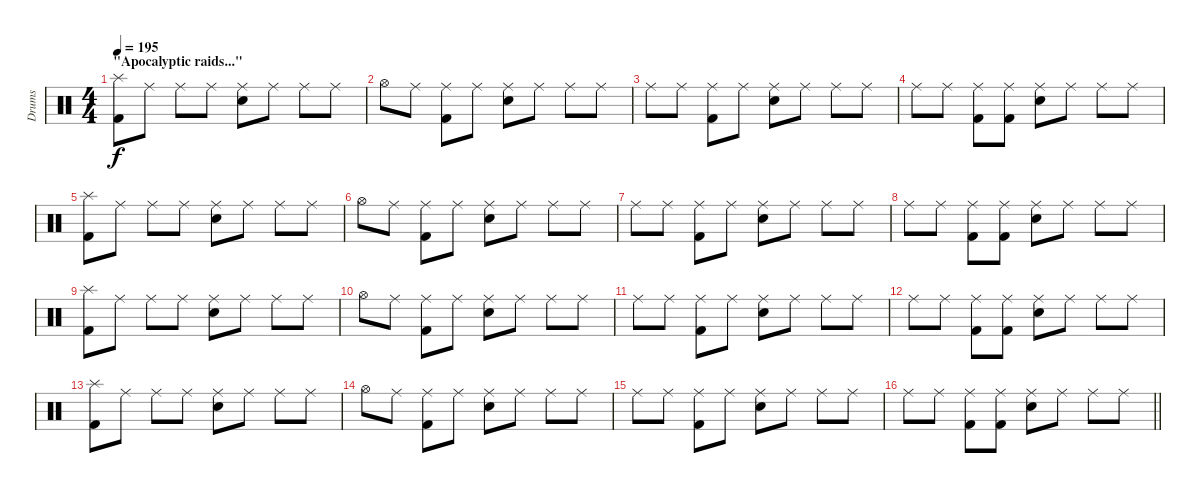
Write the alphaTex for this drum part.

\track ("Drums" "Drums") {instrument percussion}
\staff {score}
\articulation defaults
\ts (4 4)
\section ("" "\"Apocalyptic raids...\"")
\tempo 195
\clef neutral
\ks c
("Splash (hit)" "Kick (hit) 2").8{dy f} "Ride (middle)".8 "Ride (middle)".8 "Ride (middle)".8 ("Ride (middle)" "Snare (hit) 2").8 "Ride (middle)".8 "Ride (middle)".8 "Ride (middle)".8 |
"Hi-Hat (open)".8 "Ride (middle)".8 ("Ride (middle)" "Kick (hit) 2").8 "Ride (middle)".8 ("Ride (middle)" "Snare (hit) 2").8 "Ride (middle)".8 "Ride (middle)".8 "Ride (middle)".8 |
"Ride (middle)".8 "Ride (middle)".8 ("Ride (middle)" "Kick (hit) 2").8 "Ride (middle)".8 ("Ride (middle)" "Snare (hit) 2").8 "Ride (middle)".8 "Ride (middle)".8 "Ride (middle)".8 |
"Ride (middle)".8 "Ride (middle)".8 ("Ride (middle)" "Kick (hit) 2").8 ("Ride (middle)" "Kick (hit) 2").8 ("Ride (middle)" "Snare (hit) 2").8 "Ride (middle)".8 "Ride (middle)".8 "Ride (middle)".8 |
("Splash (hit)" "Kick (hit) 2").8 "Ride (middle)".8 "Ride (middle)".8 "Ride (middle)".8 ("Ride (middle)" "Snare (hit) 2").8 "Ride (middle)".8 "Ride (middle)".8 "Ride (middle)".8 |
"Hi-Hat (open)".8 "Ride (middle)".8 ("Ride (middle)" "Kick (hit) 2").8 "Ride (middle)".8 ("Ride (middle)" "Snare (hit) 2").8 "Ride (middle)".8 "Ride (middle)".8 "Ride (middle)".8 |
"Ride (middle)".8 "Ride (middle)".8 ("Ride (middle)" "Kick (hit) 2").8 "Ride (middle)".8 ("Ride (middle)" "Snare (hit) 2").8 "Ride (middle)".8 "Ride (middle)".8 "Ride (middle)".8 |
"Ride (middle)".8 "Ride (middle)".8 ("Ride (middle)" "Kick (hit) 2").8 ("Ride (middle)" "Kick (hit) 2").8 ("Ride (middle)" "Snare (hit) 2").8 "Ride (middle)".8 "Ride (middle)".8 "Ride (middle)".8 |
("Splash (hit)" "Kick (hit) 2").8 "Ride (middle)".8 "Ride (middle)".8 "Ride (middle)".8 ("Ride (middle)" "Snare (hit) 2").8 "Ride (middle)".8 "Ride (middle)".8 "Ride (middle)".8 |
"Hi-Hat (open)".8 "Ride (middle)".8 ("Ride (middle)" "Kick (hit) 2").8 "Ride (middle)".8 ("Ride (middle)" "Snare (hit) 2").8 "Ride (middle)".8 "Ride (middle)".8 "Ride (middle)".8 |
"Ride (middle)".8 "Ride (middle)".8 ("Ride (middle)" "Kick (hit) 2").8 "Ride (middle)".8 ("Ride (middle)" "Snare (hit) 2").8 "Ride (middle)".8 "Ride (middle)".8 "Ride (middle)".8 |
"Ride (middle)".8 "Ride (middle)".8 ("Ride (middle)" "Kick (hit) 2").8 ("Ride (middle)" "Kick (hit) 2").8 ("Ride (middle)" "Snare (hit) 2").8 "Ride (middle)".8 "Ride (middle)".8 "Ride (middle)".8 |
("Splash (hit)" "Kick (hit) 2").8 "Ride (middle)".8 "Ride (middle)".8 "Ride (middle)".8 ("Ride (middle)" "Snare (hit) 2").8 "Ride (middle)".8 "Ride (middle)".8 "Ride (middle)".8 |
"Hi-Hat (open)".8 "Ride (middle)".8 ("Ride (middle)" "Kick (hit) 2").8 "Ride (middle)".8 ("Ride (middle)" "Snare (hit) 2").8 "Ride (middle)".8 "Ride (middle)".8 "Ride (middle)".8 |
"Ride (middle)".8 "Ride (middle)".8 ("Ride (middle)" "Kick (hit) 2").8 "Ride (middle)".8 ("Ride (middle)" "Snare (hit) 2").8 "Ride (middle)".8 "Ride (middle)".8 "Ride (middle)".8 |
\barLineRight lightlight "Ride (middle)".8 "Ride (middle)".8
("Ride (middle)" "Kick (hit) 2").8 ("Ride (middle)" "Kick (hit) 2").8 ("Ride (middle)" "Snare (hit) 2").8 "Ride (middle)".8 "Ride (middle)".8 "Ride (middle)".8
